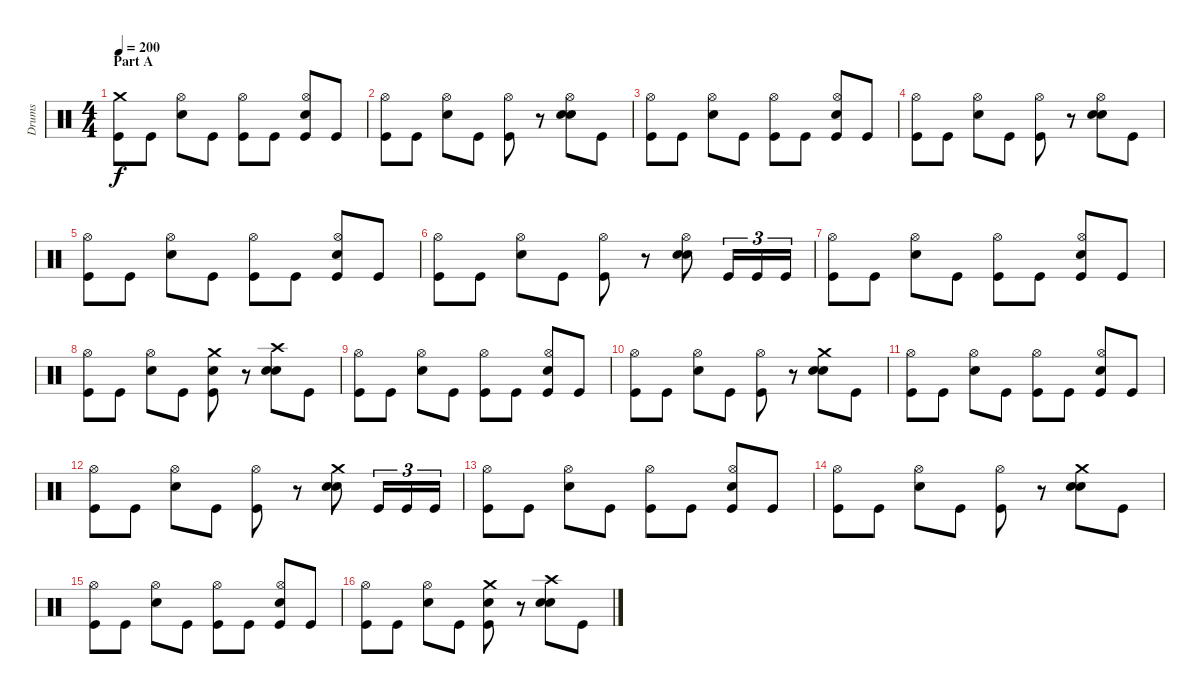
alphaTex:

\track ("Drums" "Drums") {instrument percussion}
\staff {score}
\articulation defaults
\ts (4 4)
\section ("" "Part A")
\tempo 200
\clef neutral
\ks c
("Crash medium (hit)" "Kick (hit)").8{dy f} "Kick (hit)".8 ("Hi-Hat (open)" "Snare (hit) 2").8 "Kick (hit)".8 ("Hi-Hat (open)" "Kick (hit)").8 "Kick (hit)".8 ("Hi-Hat (open)" "Snare (hit) 2" "Kick (hit)").8 "Kick (hit)".8 |
("Hi-Hat (open)" "Kick (hit)").8 "Kick (hit)".8 ("Hi-Hat (open)" "Snare (hit) 2").8 "Kick (hit)".8 ("Hi-Hat (open)" "Kick (hit)").8 r.8 ("Hi-Hat (open)" "Hand Clap (hit)" "Snare (hit) 2").8 "Kick (hit)".8 |
("Hi-Hat (open)" "Kick (hit)").8 "Kick (hit)".8 ("Hi-Hat (open)" "Snare (hit) 2").8 "Kick (hit)".8 ("Hi-Hat (open)" "Kick (hit)").8 "Kick (hit)".8 ("Hi-Hat (open)" "Snare (hit) 2" "Kick (hit)").8 "Kick (hit)".8 |
("Hi-Hat (open)" "Kick (hit)").8 "Kick (hit)".8 ("Hi-Hat (open)" "Snare (hit) 2").8 "Kick (hit)".8 ("Hi-Hat (open)" "Kick (hit)").8 r.8 ("Hi-Hat (open)" "Hand Clap (hit)" "Snare (hit) 2").8 "Kick (hit)".8 |
("Hi-Hat (open)" "Kick (hit)").8 "Kick (hit)".8 ("Hi-Hat (open)" "Snare (hit) 2").8 "Kick (hit)".8 ("Hi-Hat (open)" "Kick (hit)").8 "Kick (hit)".8 ("Hi-Hat (open)" "Snare (hit) 2" "Kick (hit)").8 "Kick (hit)".8 |
("Hi-Hat (open)" "Kick (hit)").8 "Kick (hit)".8 ("Hi-Hat (open)" "Snare (hit) 2").8 "Kick (hit)".8 ("Hi-Hat (open)" "Kick (hit)").8 r.8 ("Hi-Hat (open)" "Hand Clap (hit)" "Snare (hit) 2").8 "Kick (hit)".16{tu (3 2)} "Kick (hit)".16{tu (3 2)} "Kick (hit)".16{tu (3 2)} |
("Hi-Hat (open)" "Kick (hit)").8 "Kick (hit)".8 ("Hi-Hat (open)" "Snare (hit) 2").8 "Kick (hit)".8 ("Hi-Hat (open)" "Kick (hit)").8 "Kick (hit)".8 ("Hi-Hat (open)" "Snare (hit) 2" "Kick (hit)").8 "Kick (hit)".8 |
("Hi-Hat (open)" "Kick (hit)").8 "Kick (hit)".8 ("Hi-Hat (open)" "Snare (hit) 2").8 "Kick (hit)".8 ("Crash medium (hit)" "Hand Clap (hit)" "Kick (hit)").8 r.8 ("Crash high (hit)" "Hand Clap (hit)" "Snare (hit) 2").8 "Kick (hit)".8 |
("Hi-Hat (open)" "Kick (hit)").8 "Kick (hit)".8 ("Hi-Hat (open)" "Snare (hit) 2").8 "Kick (hit)".8 ("Hi-Hat (open)" "Kick (hit)").8 "Kick (hit)".8 ("Hi-Hat (open)" "Snare (hit) 2" "Kick (hit)").8 "Kick (hit)".8 |
("Hi-Hat (open)" "Kick (hit)").8 "Kick (hit)".8 ("Hi-Hat (open)" "Snare (hit) 2").8 "Kick (hit)".8 ("Hi-Hat (open)" "Kick (hit)").8 r.8 ("Crash medium (hit)" "Hand Clap (hit)" "Snare (hit) 2").8 "Kick (hit)".8 |
("Hi-Hat (open)" "Kick (hit)").8 "Kick (hit)".8 ("Hi-Hat (open)" "Snare (hit) 2").8 "Kick (hit)".8 ("Hi-Hat (open)" "Kick (hit)").8 "Kick (hit)".8 ("Hi-Hat (open)" "Snare (hit) 2" "Kick (hit)").8 "Kick (hit)".8 |
("Hi-Hat (open)" "Kick (hit)").8 "Kick (hit)".8 ("Hi-Hat (open)" "Snare (hit) 2").8 "Kick (hit)".8 ("Hi-Hat (open)" "Kick (hit)").8 r.8 ("Crash medium (hit)" "Hand Clap (hit)" "Snare (hit) 2").8 "Kick (hit)".16{tu (3 2)} "Kick (hit)".16{tu (3 2)} "Kick (hit)".16{tu (3 2)} |
("Hi-Hat (open)" "Kick (hit)").8 "Kick (hit)".8 ("Hi-Hat (open)" "Snare (hit) 2").8 "Kick (hit)".8 ("Hi-Hat (open)" "Kick (hit)").8 "Kick (hit)".8 ("Hi-Hat (open)" "Snare (hit) 2" "Kick (hit)").8 "Kick (hit)".8 |
("Hi-Hat (open)" "Kick (hit)").8 "Kick (hit)".8 ("Hi-Hat (open)" "Snare (hit) 2").8 "Kick (hit)".8 ("Hi-Hat (open)" "Kick (hit)").8 r.8 ("Crash medium (hit)" "Hand Clap (hit)" "Snare (hit) 2").8 "Kick (hit)".8 |
("Hi-Hat (open)" "Kick (hit)").8 "Kick (hit)".8 ("Hi-Hat (open)" "Snare (hit) 2").8 "Kick (hit)".8 ("Hi-Hat (open)" "Kick (hit)").8 "Kick (hit)".8 ("Hi-Hat (open)" "Snare (hit) 2" "Kick (hit)").8 "Kick (hit)".8 |
("Hi-Hat (open)" "Kick (hit)").8 "Kick (hit)".8 ("Hi-Hat (open)" "Snare (hit) 2").8 "Kick (hit)".8 ("Crash medium (hit)" "Hand Clap (hit)" "Kick (hit)").8 r.8 ("Crash high (hit)" "Hand Clap (hit)" "Snare (hit) 2").8 "Kick (hit)".8
